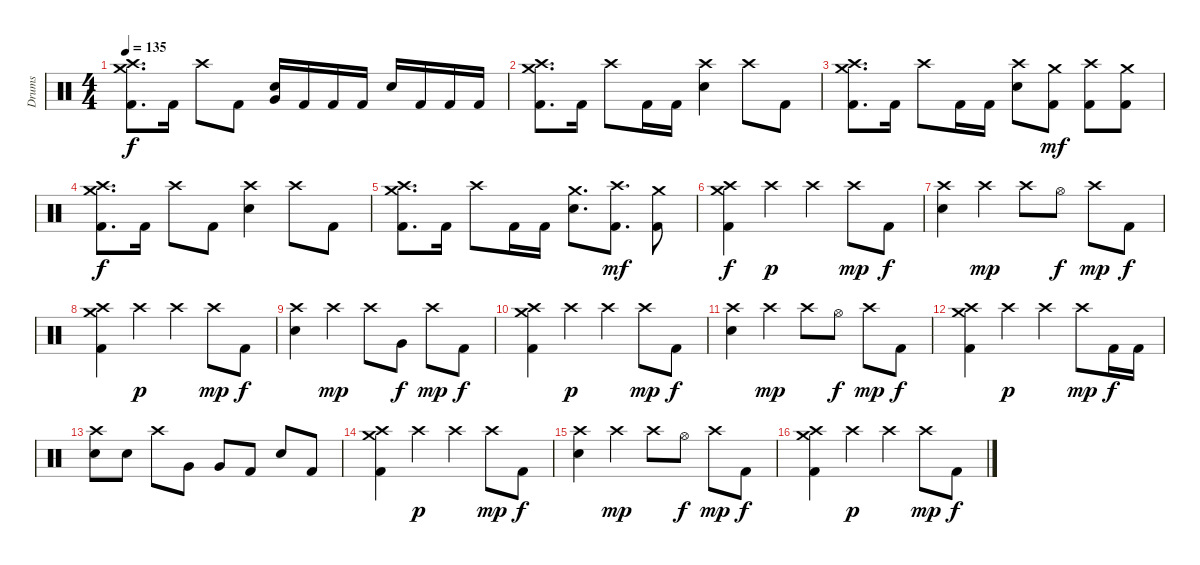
\track ("Drums" "Drums") {instrument percussion}
\staff {score}
\articulation defaults
\ts (4 4)
\tempo 135
\clef neutral
\ks c
("Crash high (hit)" "Crash medium (hit)" "Kick (hit) 2").8{d dy f} "Kick (hit) 2".16 "Crash high (hit)".8 "Kick (hit) 2".8 ("Very Low Tom (hit)" "Electric Snare (hit)").16 "Kick (hit) 2".16 "Kick (hit) 2".16 "Kick (hit) 2".16 "Electric Snare (hit)".16 "Kick (hit) 2".16 "Kick (hit) 2".16 "Kick (hit) 2".16 |
("Crash high (hit)" "Crash medium (hit)" "Kick (hit) 2").8{d} "Kick (hit) 2".16 "Crash high (hit)".8 "Kick (hit) 2".16 "Kick (hit) 2".16 ("Crash high (hit)" "Electric Snare (hit)").4 "Crash high (hit)".8 "Kick (hit) 2".8 |
("Crash high (hit)" "Crash medium (hit)" "Kick (hit) 2").8{d} "Kick (hit) 2".16 "Crash high (hit)".8 "Kick (hit) 2".16 "Kick (hit) 2".16 ("Crash high (hit)" "Electric Snare (hit)").8 ("Crash medium (hit)" "Kick (hit) 2").8{dy mf} ("Crash high (hit)" "Kick (hit) 2").8 ("Crash medium (hit)" "Kick (hit) 2").8 |
("Crash high (hit)" "Crash medium (hit)" "Kick (hit) 2").8{d dy f} "Kick (hit) 2".16 "Crash high (hit)".8 "Kick (hit) 2".8 ("Crash high (hit)" "Electric Snare (hit)").4 "Crash high (hit)".8 "Kick (hit) 2".8 |
("Crash high (hit)" "Crash medium (hit)" "Kick (hit) 2").8{d} "Kick (hit) 2".16 "Crash high (hit)".8 "Kick (hit) 2".16 "Kick (hit) 2".16 ("Crash medium (hit)" "Electric Snare (hit)").8{d} ("Crash high (hit)" "Kick (hit) 2").8{d dy mf} ("Crash medium (hit)" "Kick (hit) 2").8 |
("Crash high (hit)" "Crash medium (hit)" "Kick (hit) 2").4{dy f} "Crash high (hit)".4{dy p} "Crash high (hit)".4 "Crash high (hit)".8{dy mp} "Kick (hit) 2".8{dy f} |
("Crash high (hit)" "Electric Snare (hit)").4 "Crash high (hit)".4{dy mp} "Crash high (hit)".8 "Hi-Hat (open)".8{dy f} "Crash high (hit)".8{dy mp} "Kick (hit) 2".8{dy f} |
("Crash high (hit)" "Crash medium (hit)" "Kick (hit) 2").4 "Crash high (hit)".4{dy p} "Crash high (hit)".4 "Crash high (hit)".8{dy mp} "Kick (hit) 2".8{dy f} |
("Crash high (hit)" "Electric Snare (hit)").4 "Crash high (hit)".4{dy mp} "Crash high (hit)".8 "Very Low Tom (hit)".8{dy f} "Crash high (hit)".8{dy mp} "Kick (hit) 2".8{dy f} |
("Crash high (hit)" "Crash medium (hit)" "Kick (hit) 2").4 "Crash high (hit)".4{dy p} "Crash high (hit)".4 "Crash high (hit)".8{dy mp} "Kick (hit) 2".8{dy f} |
("Crash high (hit)" "Electric Snare (hit)").4 "Crash high (hit)".4{dy mp} "Crash high (hit)".8 "Hi-Hat (open)".8{dy f} "Crash high (hit)".8{dy mp} "Kick (hit) 2".8{dy f} |
("Crash high (hit)" "Crash medium (hit)" "Kick (hit) 2").4 "Crash high (hit)".4{dy p} "Crash high (hit)".4 "Crash high (hit)".8{dy mp} "Kick (hit) 2".16{dy f} "Kick (hit) 2".16 |
("Crash high (hit)" "Electric Snare (hit)").8 "Electric Snare (hit)".8 "Crash high (hit)".8 "Very Low Tom (hit)".8 "Very Low Tom (hit)".8 "Kick (hit) 2".8 "Electric Snare (hit)".8 "Kick (hit) 2".8 |
("Crash high (hit)" "Crash medium (hit)" "Kick (hit) 2").4 "Crash high (hit)".4{dy p} "Crash high (hit)".4 "Crash high (hit)".8{dy mp} "Kick (hit) 2".8{dy f} |
("Crash high (hit)" "Electric Snare (hit)").4 "Crash high (hit)".4{dy mp} "Crash high (hit)".8 "Hi-Hat (open)".8{dy f} "Crash high (hit)".8{dy mp} "Kick (hit) 2".8{dy f} |
("Crash high (hit)" "Crash medium (hit)" "Kick (hit) 2").4 "Crash high (hit)".4{dy p} "Crash high (hit)".4 "Crash high (hit)".8{dy mp} "Kick (hit) 2".8{dy f}
